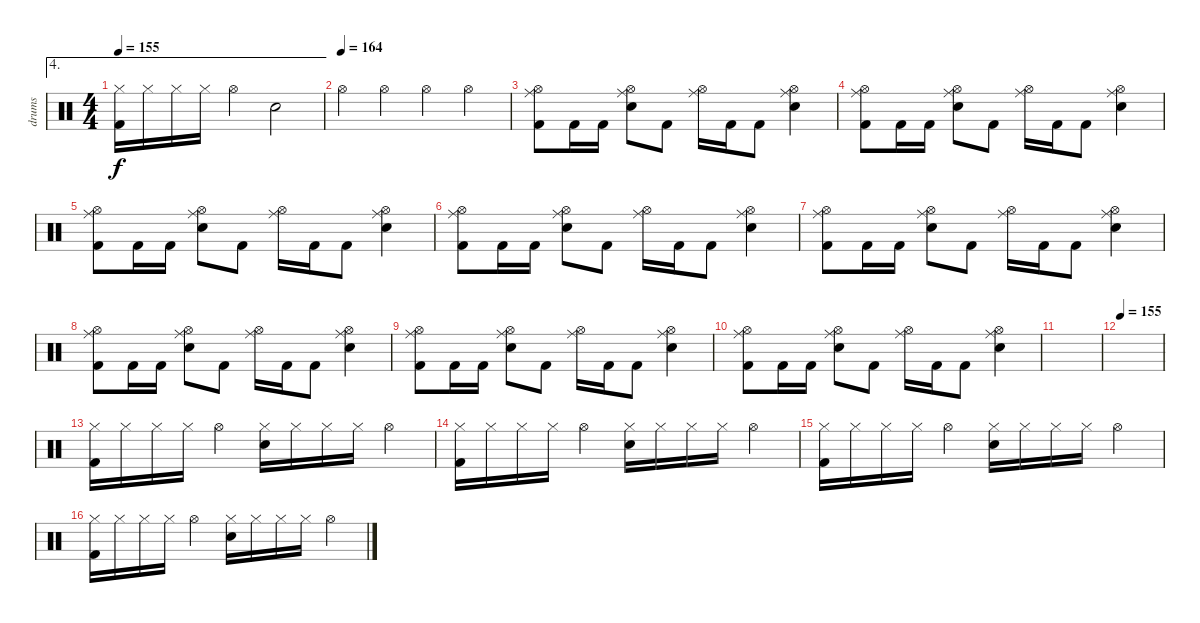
\track ("drums" "drums") {instrument percussion}
\staff {score}
\articulation defaults
\ae 4
\ts (4 4)
\tempo 155
\clef neutral
\ks c
("Hi-Hat (closed)" "Kick (hit) 2").16{dy f} "Hi-Hat (closed)".16 "Hi-Hat (closed)".16 "Hi-Hat (closed)".16 "Hi-Hat (open)".4 "Electric Snare (hit)".2 |
\tempo (164)
"Hi-Hat (open)".4 "Hi-Hat (open)".4 "Hi-Hat (open)".4 "Hi-Hat (open)".4 |
("Hi-Hat (open)" "Ride (middle)" "Kick (hit) 2").8 "Kick (hit) 2".16 "Kick (hit) 2".16 ("Hi-Hat (open)" "Ride (middle)" "Electric Snare (hit)").8 "Kick (hit) 2".8 ("Hi-Hat (open)" "Ride (middle)").16 "Kick (hit) 2".16 "Kick (hit) 2".8 ("Hi-Hat (open)" "Ride (middle)" "Electric Snare (hit)").4 |
("Hi-Hat (open)" "Ride (middle)" "Kick (hit) 2").8 "Kick (hit) 2".16 "Kick (hit) 2".16 ("Hi-Hat (open)" "Ride (middle)" "Electric Snare (hit)").8 "Kick (hit) 2".8 ("Hi-Hat (open)" "Ride (middle)").16 "Kick (hit) 2".16 "Kick (hit) 2".8 ("Hi-Hat (open)" "Ride (middle)" "Electric Snare (hit)").4 |
("Hi-Hat (open)" "Ride (middle)" "Kick (hit) 2").8 "Kick (hit) 2".16 "Kick (hit) 2".16 ("Hi-Hat (open)" "Ride (middle)" "Electric Snare (hit)").8 "Kick (hit) 2".8 ("Hi-Hat (open)" "Ride (middle)").16 "Kick (hit) 2".16 "Kick (hit) 2".8 ("Hi-Hat (open)" "Ride (middle)" "Electric Snare (hit)").4 |
("Hi-Hat (open)" "Ride (middle)" "Kick (hit) 2").8 "Kick (hit) 2".16 "Kick (hit) 2".16 ("Hi-Hat (open)" "Ride (middle)" "Electric Snare (hit)").8 "Kick (hit) 2".8 ("Hi-Hat (open)" "Ride (middle)").16 "Kick (hit) 2".16 "Kick (hit) 2".8 ("Hi-Hat (open)" "Ride (middle)" "Electric Snare (hit)").4 |
("Hi-Hat (open)" "Ride (middle)" "Kick (hit) 2").8 "Kick (hit) 2".16 "Kick (hit) 2".16 ("Hi-Hat (open)" "Ride (middle)" "Electric Snare (hit)").8 "Kick (hit) 2".8 ("Hi-Hat (open)" "Ride (middle)").16 "Kick (hit) 2".16 "Kick (hit) 2".8 ("Hi-Hat (open)" "Ride (middle)" "Electric Snare (hit)").4 |
("Hi-Hat (open)" "Ride (middle)" "Kick (hit) 2").8 "Kick (hit) 2".16 "Kick (hit) 2".16 ("Hi-Hat (open)" "Ride (middle)" "Electric Snare (hit)").8 "Kick (hit) 2".8 ("Hi-Hat (open)" "Ride (middle)").16 "Kick (hit) 2".16 "Kick (hit) 2".8 ("Hi-Hat (open)" "Ride (middle)" "Electric Snare (hit)").4 |
("Hi-Hat (open)" "Ride (middle)" "Kick (hit) 2").8 "Kick (hit) 2".16 "Kick (hit) 2".16 ("Hi-Hat (open)" "Ride (middle)" "Electric Snare (hit)").8 "Kick (hit) 2".8 ("Hi-Hat (open)" "Ride (middle)").16 "Kick (hit) 2".16 "Kick (hit) 2".8 ("Hi-Hat (open)" "Ride (middle)" "Electric Snare (hit)").4 |
("Hi-Hat (open)" "Ride (middle)" "Kick (hit) 2").8 "Kick (hit) 2".16 "Kick (hit) 2".16 ("Hi-Hat (open)" "Ride (middle)" "Electric Snare (hit)").8 "Kick (hit) 2".8 ("Hi-Hat (open)" "Ride (middle)").16 "Kick (hit) 2".16 "Kick (hit) 2".8 ("Hi-Hat (open)" "Ride (middle)" "Electric Snare (hit)").4 |
|
\tempo 155
|
("Hi-Hat (closed)" "Kick (hit) 2").16 "Hi-Hat (closed)".16 "Hi-Hat (closed)".16 "Hi-Hat (closed)".16 "Hi-Hat (open)".4 ("Hi-Hat (closed)" "Electric Snare (hit)").16 "Hi-Hat (closed)".16 "Hi-Hat (closed)".16 "Hi-Hat (closed)".16 "Hi-Hat (open)".4 |
("Hi-Hat (closed)" "Kick (hit) 2").16 "Hi-Hat (closed)".16 "Hi-Hat (closed)".16 "Hi-Hat (closed)".16 "Hi-Hat (open)".4 ("Hi-Hat (closed)" "Electric Snare (hit)").16 "Hi-Hat (closed)".16 "Hi-Hat (closed)".16 "Hi-Hat (closed)".16 "Hi-Hat (open)".4 |
("Hi-Hat (closed)" "Kick (hit) 2").16 "Hi-Hat (closed)".16 "Hi-Hat (closed)".16 "Hi-Hat (closed)".16 "Hi-Hat (open)".4 ("Hi-Hat (closed)" "Electric Snare (hit)").16 "Hi-Hat (closed)".16 "Hi-Hat (closed)".16 "Hi-Hat (closed)".16 "Hi-Hat (open)".4 |
("Hi-Hat (closed)" "Kick (hit) 2").16 "Hi-Hat (closed)".16 "Hi-Hat (closed)".16 "Hi-Hat (closed)".16 "Hi-Hat (open)".4 ("Hi-Hat (closed)" "Electric Snare (hit)").16 "Hi-Hat (closed)".16 "Hi-Hat (closed)".16 "Hi-Hat (closed)".16 "Hi-Hat (open)".4
